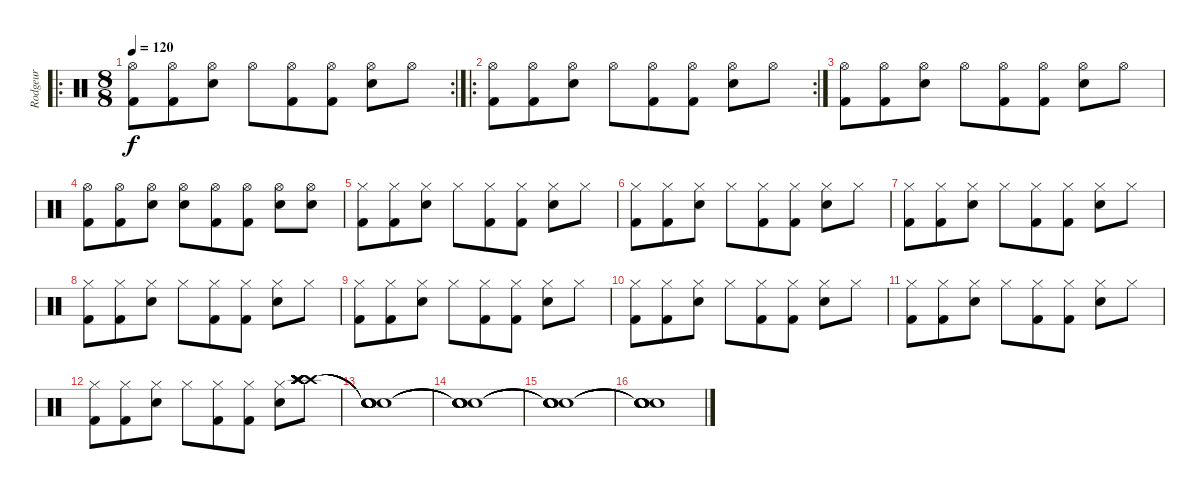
\track ("Rodgeur" "Rodgeur") {instrument percussion}
\staff {score}
\articulation defaults
\ro
\rc 2
\ts (8 8)
\tempo 120
\clef neutral
\ks c
("Hi-Hat (open)" "Kick (hit) 2").8{dy f} ("Hi-Hat (open)" "Kick (hit) 2").8 ("Hi-Hat (open)" "Electric Snare (hit)").8 "Hi-Hat (open)".8 ("Hi-Hat (open)" "Kick (hit) 2").8 ("Hi-Hat (open)" "Kick (hit) 2").8 ("Hi-Hat (open)" "Electric Snare (hit)").8 "Hi-Hat (open)".8 |
\ro
\rc 2
("Hi-Hat (open)" "Kick (hit) 2").8 ("Hi-Hat (open)" "Kick (hit) 2").8 ("Hi-Hat (open)" "Electric Snare (hit)").8 "Hi-Hat (open)".8 ("Hi-Hat (open)" "Kick (hit) 2").8 ("Hi-Hat (open)" "Kick (hit) 2").8 ("Hi-Hat (open)" "Electric Snare (hit)").8 "Hi-Hat (open)".8 |
("Hi-Hat (open)" "Kick (hit) 2").8 ("Hi-Hat (open)" "Kick (hit) 2").8 ("Hi-Hat (open)" "Electric Snare (hit)").8 "Hi-Hat (open)".8 ("Hi-Hat (open)" "Kick (hit) 2").8 ("Hi-Hat (open)" "Kick (hit) 2").8 ("Hi-Hat (open)" "Electric Snare (hit)").8 "Hi-Hat (open)".8 |
("Hi-Hat (open)" "Kick (hit) 2").8 ("Hi-Hat (open)" "Kick (hit) 2").8 ("Hi-Hat (open)" "Electric Snare (hit)").8 ("Hi-Hat (open)" "Electric Snare (hit)").8 ("Hi-Hat (open)" "Kick (hit) 2").8 ("Hi-Hat (open)" "Kick (hit) 2").8 ("Hi-Hat (open)" "Electric Snare (hit)").8 ("Hi-Hat (open)" "Electric Snare (hit)").8 |
("Hi-Hat (closed)" "Kick (hit) 2").8 ("Hi-Hat (closed)" "Kick (hit) 2").8 ("Hi-Hat (closed)" "Electric Snare (hit)").8 "Hi-Hat (closed)".8 ("Hi-Hat (closed)" "Kick (hit) 2").8 ("Hi-Hat (closed)" "Kick (hit) 2").8 ("Hi-Hat (closed)" "Electric Snare (hit)").8 "Hi-Hat (closed)".8 |
("Hi-Hat (closed)" "Kick (hit) 2").8 ("Hi-Hat (closed)" "Kick (hit) 2").8 ("Hi-Hat (closed)" "Electric Snare (hit)").8 "Hi-Hat (closed)".8 ("Hi-Hat (closed)" "Kick (hit) 2").8 ("Hi-Hat (closed)" "Kick (hit) 2").8 ("Hi-Hat (closed)" "Electric Snare (hit)").8 "Hi-Hat (closed)".8 |
("Hi-Hat (closed)" "Kick (hit) 2").8 ("Hi-Hat (closed)" "Kick (hit) 2").8 ("Hi-Hat (closed)" "Electric Snare (hit)").8 "Hi-Hat (closed)".8 ("Hi-Hat (closed)" "Kick (hit) 2").8 ("Hi-Hat (closed)" "Kick (hit) 2").8 ("Hi-Hat (closed)" "Electric Snare (hit)").8 "Hi-Hat (closed)".8 |
("Hi-Hat (closed)" "Kick (hit) 2").8 ("Hi-Hat (closed)" "Kick (hit) 2").8 ("Hi-Hat (closed)" "Electric Snare (hit)").8 "Hi-Hat (closed)".8 ("Hi-Hat (closed)" "Kick (hit) 2").8 ("Hi-Hat (closed)" "Kick (hit) 2").8 ("Hi-Hat (closed)" "Electric Snare (hit)").8 "Hi-Hat (closed)".8 |
("Hi-Hat (closed)" "Kick (hit) 2").8 ("Hi-Hat (closed)" "Kick (hit) 2").8 ("Hi-Hat (closed)" "Electric Snare (hit)").8 "Hi-Hat (closed)".8 ("Hi-Hat (closed)" "Kick (hit) 2").8 ("Hi-Hat (closed)" "Kick (hit) 2").8 ("Hi-Hat (closed)" "Electric Snare (hit)").8 "Hi-Hat (closed)".8 |
("Hi-Hat (closed)" "Kick (hit) 2").8 ("Hi-Hat (closed)" "Kick (hit) 2").8 ("Hi-Hat (closed)" "Electric Snare (hit)").8 "Hi-Hat (closed)".8 ("Hi-Hat (closed)" "Kick (hit) 2").8 ("Hi-Hat (closed)" "Kick (hit) 2").8 ("Hi-Hat (closed)" "Electric Snare (hit)").8 "Hi-Hat (closed)".8 |
("Hi-Hat (closed)" "Kick (hit) 2").8 ("Hi-Hat (closed)" "Kick (hit) 2").8 ("Hi-Hat (closed)" "Electric Snare (hit)").8 "Hi-Hat (closed)".8 ("Hi-Hat (closed)" "Kick (hit) 2").8 ("Hi-Hat (closed)" "Kick (hit) 2").8 ("Hi-Hat (closed)" "Electric Snare (hit)").8 "Hi-Hat (closed)".8 |
("Hi-Hat (closed)" "Kick (hit) 2").8 ("Hi-Hat (closed)" "Kick (hit) 2").8 ("Hi-Hat (closed)" "Electric Snare (hit)").8 "Hi-Hat (closed)".8 ("Hi-Hat (closed)" "Kick (hit) 2").8 ("Hi-Hat (closed)" "Kick (hit) 2").8 ("Hi-Hat (closed)" "Electric Snare (hit)").8 ("Crash high (hit)" "Crash high (hit)" "Crash high (hit)" "Crash high (hit)" "Crash high (hit)" "Crash high (hit)").8 |
("Snare (hit)"{t} "Snare (hit)"{t} "Snare (hit)"{t} "Snare (hit)"{t} "Snare (hit)"{t} "Snare (hit)"{t}).1 |
("Snare (hit)"{t} "Snare (hit)"{t} "Snare (hit)"{t} "Snare (hit)"{t} "Snare (hit)"{t} "Snare (hit)"{t}).1 |
("Snare (hit)"{t} "Snare (hit)"{t} "Snare (hit)"{t} "Snare (hit)"{t} "Snare (hit)"{t} "Snare (hit)"{t}).1 |
("Snare (hit)"{t} "Snare (hit)"{t} "Snare (hit)"{t} "Snare (hit)"{t} "Snare (hit)"{t} "Snare (hit)"{t}).1
